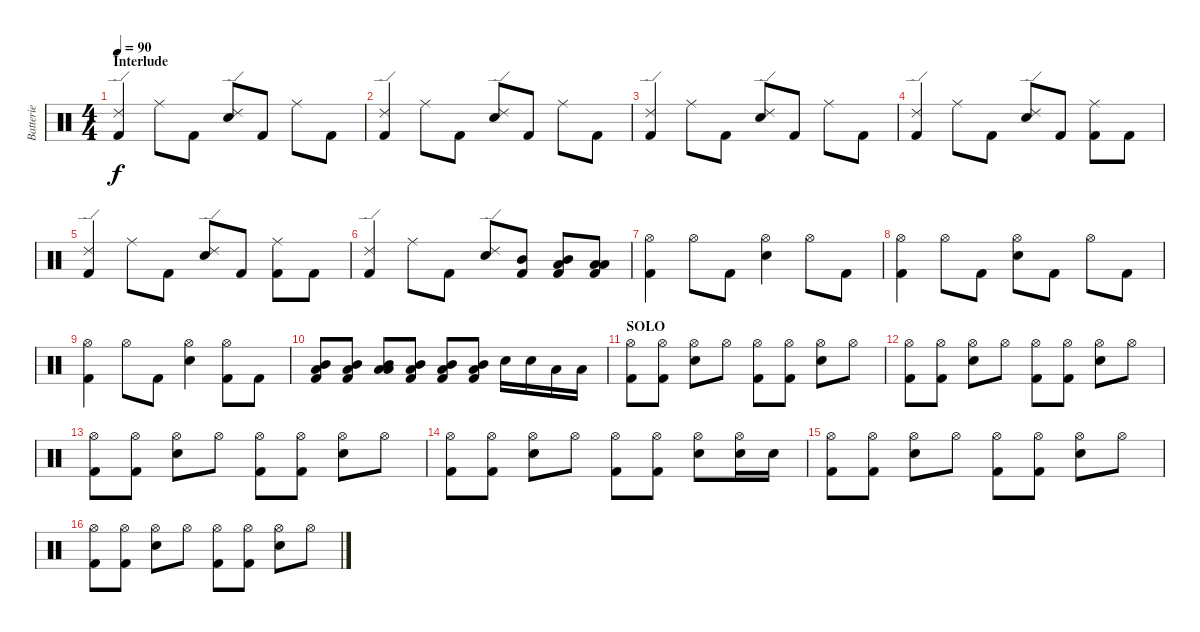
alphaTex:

\track ("Batterie" "Batterie") {instrument percussion}
\staff {score}
\articulation defaults
\ts (4 4)
\section ("" "Interlude")
\tempo 90
\clef neutral
\ks c
("Ride (edge) 2" "Kick (hit) 2").4{dy f} "Ride (middle)".8 "Kick (hit) 2".8 ("Ride (edge) 2" "Electric Snare (hit)").8 "Kick (hit) 2".8 "Ride (middle)".8 "Kick (hit) 2".8 |
("Ride (edge) 2" "Kick (hit) 2").4 "Ride (middle)".8 "Kick (hit) 2".8 ("Ride (edge) 2" "Electric Snare (hit)").8 "Kick (hit) 2".8 "Ride (middle)".8 "Kick (hit) 2".8 |
("Ride (edge) 2" "Kick (hit) 2").4 "Ride (middle)".8 "Kick (hit) 2".8 ("Ride (edge) 2" "Electric Snare (hit)").8 "Kick (hit) 2".8 "Ride (middle)".8 "Kick (hit) 2".8 |
("Ride (edge) 2" "Kick (hit) 2").4 "Ride (middle)".8 "Kick (hit) 2".8 ("Ride (edge) 2" "Electric Snare (hit)").8 "Kick (hit) 2".8 ("Ride (middle)" "Kick (hit) 2").8 "Kick (hit) 2".8 |
("Ride (edge) 2" "Kick (hit) 2").4 "Ride (middle)".8 "Kick (hit) 2".8 ("Ride (edge) 2" "Electric Snare (hit)").8 "Kick (hit) 2".8 ("Ride (middle)" "Kick (hit) 2").8 "Kick (hit) 2".8 |
("Ride (edge) 2" "Kick (hit) 2").4 "Ride (middle)".8 "Kick (hit) 2".8 ("Ride (edge) 2" "Electric Snare (hit)").8 ("Mid Tom (hit)" "Kick (hit) 2").8 ("Mid Tom (hit)" "Low Tom (hit)" "Kick (hit) 2").8 ("Low Tom (hit)" "Low Tom (hit)" "Kick (hit) 2").8 |
("Hi-Hat (open)" "Kick (hit) 2").4 "Hi-Hat (open)".8 "Kick (hit) 2".8 ("Hi-Hat (open)" "Electric Snare (hit)").4 "Hi-Hat (open)".8 "Kick (hit) 2".8 |
("Hi-Hat (open)" "Kick (hit) 2").4 "Hi-Hat (open)".8 "Kick (hit) 2".8 ("Hi-Hat (open)" "Electric Snare (hit)").8 "Kick (hit) 2".8 "Hi-Hat (open)".8 "Kick (hit) 2".8 |
("Hi-Hat (open)" "Kick (hit) 2").4 "Hi-Hat (open)".8 "Kick (hit) 2".8 ("Hi-Hat (open)" "Electric Snare (hit)").4 ("Hi-Hat (open)" "Kick (hit) 2").8 "Kick (hit) 2".8 |
("Mid Tom (hit)" "Low Tom (hit)" "Kick (hit) 2").8{volume 7} ("Mid Tom (hit)" "Low Tom (hit)" "Kick (hit) 2").8{volume 13} ("Mid Tom (hit)" "Low Tom (hit)" "Low Tom (hit)").8 ("Mid Tom (hit)" "Low Tom (hit)" "Kick (hit) 2").8 ("Mid Tom (hit)" "Low Tom (hit)" "Kick (hit) 2").8 ("Mid Tom (hit)" "Low Tom (hit)" "Kick (hit) 2").8 "Electric Snare (hit)".16 "Electric Snare (hit)".16 "Low Tom (hit)".16 "Low Tom (hit)".16 |
\section ("" "SOLO")
("Hi-Hat (open)" "Kick (hit) 2").8 ("Hi-Hat (open)" "Kick (hit) 2").8 ("Hi-Hat (open)" "Electric Snare (hit)").8 "Hi-Hat (open)".8 ("Hi-Hat (open)" "Kick (hit) 2").8 ("Hi-Hat (open)" "Kick (hit) 2").8 ("Hi-Hat (open)" "Electric Snare (hit)").8 "Hi-Hat (open)".8 |
("Hi-Hat (open)" "Kick (hit) 2").8 ("Hi-Hat (open)" "Kick (hit) 2").8 ("Hi-Hat (open)" "Electric Snare (hit)").8 "Hi-Hat (open)".8 ("Hi-Hat (open)" "Kick (hit) 2").8 ("Hi-Hat (open)" "Kick (hit) 2").8 ("Hi-Hat (open)" "Electric Snare (hit)").8 "Hi-Hat (open)".8 |
("Hi-Hat (open)" "Kick (hit) 2").8 ("Hi-Hat (open)" "Kick (hit) 2").8 ("Hi-Hat (open)" "Electric Snare (hit)").8 "Hi-Hat (open)".8 ("Hi-Hat (open)" "Kick (hit) 2").8 ("Hi-Hat (open)" "Kick (hit) 2").8 ("Hi-Hat (open)" "Electric Snare (hit)").8 "Hi-Hat (open)".8 |
("Hi-Hat (open)" "Kick (hit) 2").8 ("Hi-Hat (open)" "Kick (hit) 2").8 ("Hi-Hat (open)" "Electric Snare (hit)").8 "Hi-Hat (open)".8 ("Hi-Hat (open)" "Kick (hit) 2").8 ("Hi-Hat (open)" "Kick (hit) 2").8 ("Hi-Hat (open)" "Electric Snare (hit)").8 ("Hi-Hat (open)" "Electric Snare (hit)").16 "Electric Snare (hit)".16 |
("Hi-Hat (open)" "Kick (hit) 2").8 ("Hi-Hat (open)" "Kick (hit) 2").8 ("Hi-Hat (open)" "Electric Snare (hit)").8 "Hi-Hat (open)".8 ("Hi-Hat (open)" "Kick (hit) 2").8 ("Hi-Hat (open)" "Kick (hit) 2").8 ("Hi-Hat (open)" "Electric Snare (hit)").8 "Hi-Hat (open)".8 |
("Hi-Hat (open)" "Kick (hit) 2").8 ("Hi-Hat (open)" "Kick (hit) 2").8 ("Hi-Hat (open)" "Electric Snare (hit)").8 "Hi-Hat (open)".8 ("Hi-Hat (open)" "Kick (hit) 2").8 ("Hi-Hat (open)" "Kick (hit) 2").8 ("Hi-Hat (open)" "Electric Snare (hit)").8 "Hi-Hat (open)".8
